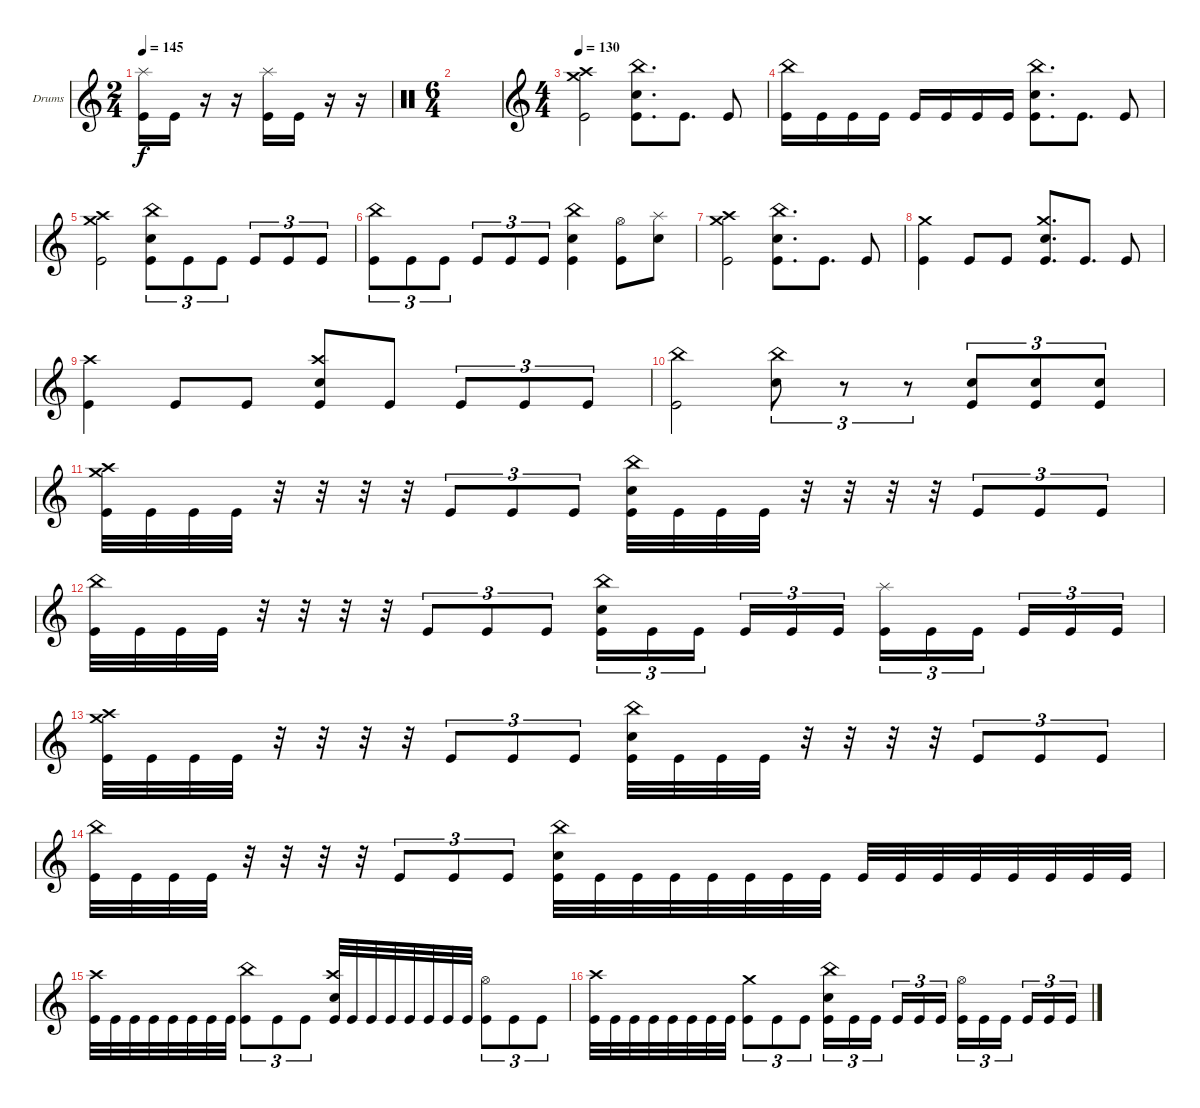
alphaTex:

\defaultSystemsLayout 4
\bracketExtendMode groupsimilarinstruments
\firstSystemTrackNameOrientation horizontal
\otherSystemsTrackNameOrientation horizontal
\track ("Drums" "Drums") {instrument percussion}
\staff {score}
\articulation defaults
\ts (2 4)
\tempo 145
\clef g2
\ks c
("Kick (hit)" "Splash (hit)").16{dy f} "Kick (hit)".16 r.16 r.16 ("Kick (hit)" "Splash (hit)").16 "Kick (hit)".16 r.16 r.16 |
\ts (6 4)
\clef neutral
|
\ts (4 4)
\tempo 130
\clef g2
("Kick (hit)" "Crash high (hit)" "Crash medium (hit)").2 ("Snare (hit) 2" "Kick (hit)" "China (hit)").8{d} "Kick (hit)".8{d} "Kick (hit)".8 |
("Kick (hit)" "China (hit)").16 "Kick (hit)".16 "Kick (hit)".16 "Kick (hit)".16 "Kick (hit)".16 "Kick (hit)".16 "Kick (hit)".16 "Kick (hit)".16 ("Kick (hit)" "China (hit)" "Snare (hit) 2").8{d} "Kick (hit)".8{d} "Kick (hit)".8 |
("Kick (hit)" "Crash high (hit)" "Crash medium (hit)").2 ("China (hit)" "Snare (hit) 2" "Kick (hit)").8{tu (3 2)} "Kick (hit)".8{tu (3 2)} "Kick (hit)".8{tu (3 2)} "Kick (hit)".8{tu (3 2)} "Kick (hit)".8{tu (3 2)} "Kick (hit)".8{tu (3 2)} |
("Kick (hit)" "China (hit)").8{tu (3 2)} "Kick (hit)".8{tu (3 2)} "Kick (hit)".8{tu (3 2)} "Kick (hit)".8{tu (3 2)} "Kick (hit)".8{tu (3 2)} "Kick (hit)".8{tu (3 2)} ("Kick (hit)" "China (hit)" "Snare (hit) 2").4 ("Hi-Hat (open)" "Kick (hit)").8 ("Splash (hit)" "Snare (hit) 2").8 |
("Kick (hit)" "Crash high (hit)" "Crash medium (hit)").2 ("Snare (hit) 2" "Kick (hit)" "China (hit)").8{d} "Kick (hit)".8{d} "Kick (hit)".8 |
("Kick (hit)" "Crash medium (hit)").4 "Kick (hit)".8 "Kick (hit)".8 ("Kick (hit)" "Crash medium (hit)" "Snare (hit) 2").8{d} "Kick (hit)".8{d} "Kick (hit)".8 |
("Kick (hit)" "Crash high (hit)").4 "Kick (hit)".8 "Kick (hit)".8 ("Kick (hit)" "Snare (hit) 2" "Crash high (hit)").8 "Kick (hit)".8 "Kick (hit)".8{tu (3 2)} "Kick (hit)".8{tu (3 2)} "Kick (hit)".8{tu (3 2)} |
("Kick (hit)" "China (hit)").2 ("Snare (hit) 2" "China (hit)").8{tu (3 2)} r.8{tu (3 2)} r.8{tu (3 2)} ("Kick (hit)" "Snare (hit) 2").8{tu (3 2)} ("Kick (hit)" "Snare (hit) 2").8{tu (3 2)} ("Kick (hit)" "Snare (hit) 2").8{tu (3 2)} |
("Kick (hit)" "Crash high (hit)" "Crash medium (hit)").32 "Kick (hit)".32 "Kick (hit)".32 "Kick (hit)".32 r.32 r.32 r.32 r.32 "Kick (hit)".8{tu (3 2)} "Kick (hit)".8{tu (3 2)} "Kick (hit)".8{tu (3 2)} ("Kick (hit)" "China (hit)" "Snare (hit) 2").32 "Kick (hit)".32 "Kick (hit)".32 "Kick (hit)".32 r.32 r.32 r.32 r.32 "Kick (hit)".8{tu (3 2)} "Kick (hit)".8{tu (3 2)} "Kick (hit)".8{tu (3 2)} |
("Kick (hit)" "China (hit)").32 "Kick (hit)".32 "Kick (hit)".32 "Kick (hit)".32 r.32 r.32 r.32 r.32 "Kick (hit)".8{tu (3 2)} "Kick (hit)".8{tu (3 2)} "Kick (hit)".8{tu (3 2)} ("Kick (hit)" "Snare (hit) 2" "China (hit)").16{tu (3 2)} "Kick (hit)".16{tu (3 2)} "Kick (hit)".16{tu (3 2)} "Kick (hit)".16{tu (3 2)} "Kick (hit)".16{tu (3 2)} "Kick (hit)".16{tu (3 2)} ("Kick (hit)" "Splash (hit)").16{tu (3 2)} "Kick (hit)".16{tu (3 2)} "Kick (hit)".16{tu (3 2)} "Kick (hit)".16{tu (3 2)} "Kick (hit)".16{tu (3 2)} "Kick (hit)".16{tu (3 2)} |
("Kick (hit)" "Crash high (hit)" "Crash medium (hit)").32 "Kick (hit)".32 "Kick (hit)".32 "Kick (hit)".32 r.32 r.32 r.32 r.32 "Kick (hit)".8{tu (3 2)} "Kick (hit)".8{tu (3 2)} "Kick (hit)".8{tu (3 2)} ("Kick (hit)" "China (hit)" "Snare (hit) 2").32 "Kick (hit)".32 "Kick (hit)".32 "Kick (hit)".32 r.32 r.32 r.32 r.32 "Kick (hit)".8{tu (3 2)} "Kick (hit)".8{tu (3 2)} "Kick (hit)".8{tu (3 2)} |
("Kick (hit)" "China (hit)").32 "Kick (hit)".32 "Kick (hit)".32 "Kick (hit)".32 r.32 r.32 r.32 r.32 "Kick (hit)".8{tu (3 2)} "Kick (hit)".8{tu (3 2)} "Kick (hit)".8{tu (3 2)} ("Kick (hit)" "China (hit)" "Snare (hit) 2").32 "Kick (hit)".32 "Kick (hit)".32 "Kick (hit)".32 "Kick (hit)".32 "Kick (hit)".32 "Kick (hit)".32 "Kick (hit)".32 "Kick (hit)".32 "Kick (hit)".32 "Kick (hit)".32 "Kick (hit)".32 "Kick (hit)".32 "Kick (hit)".32 "Kick (hit)".32 "Kick (hit)".32 |
("Kick (hit)" "Crash high (hit)").32 "Kick (hit)".32 "Kick (hit)".32 "Kick (hit)".32 "Kick (hit)".32 "Kick (hit)".32 "Kick (hit)".32 "Kick (hit)".32 ("Kick (hit)" "China (hit)").8{tu (3 2)} "Kick (hit)".8{tu (3 2)} "Kick (hit)".8{tu (3 2)} ("Kick (hit)" "Snare (hit) 2" "Crash high (hit)").32 "Kick (hit)".32 "Kick (hit)".32 "Kick (hit)".32 "Kick (hit)".32 "Kick (hit)".32 "Kick (hit)".32 "Kick (hit)".32 ("Kick (hit)" "Hi-Hat (open)").8{tu (3 2)} "Kick (hit)".8{tu (3 2)} "Kick (hit)".8{tu (3 2)} |
("Kick (hit)" "Crash high (hit)").32 "Kick (hit)".32 "Kick (hit)".32 "Kick (hit)".32 "Kick (hit)".32 "Kick (hit)".32 "Kick (hit)".32 "Kick (hit)".32 ("Kick (hit)" "Crash medium (hit)").8{tu (3 2)} "Kick (hit)".8{tu (3 2)} "Kick (hit)".8{tu (3 2)} ("Kick (hit)" "Snare (hit) 2" "China (hit)").16{tu (3 2)} "Kick (hit)".16{tu (3 2)} "Kick (hit)".16{tu (3 2)} "Kick (hit)".16{tu (3 2)} "Kick (hit)".16{tu (3 2)} "Kick (hit)".16{tu (3 2)} ("Kick (hit)" "Hi-Hat (open)").16{tu (3 2)} "Kick (hit)".16{tu (3 2)} "Kick (hit)".16{tu (3 2)} "Kick (hit)".16{tu (3 2)} "Kick (hit)".16{tu (3 2)} "Kick (hit)".16{tu (3 2)}
